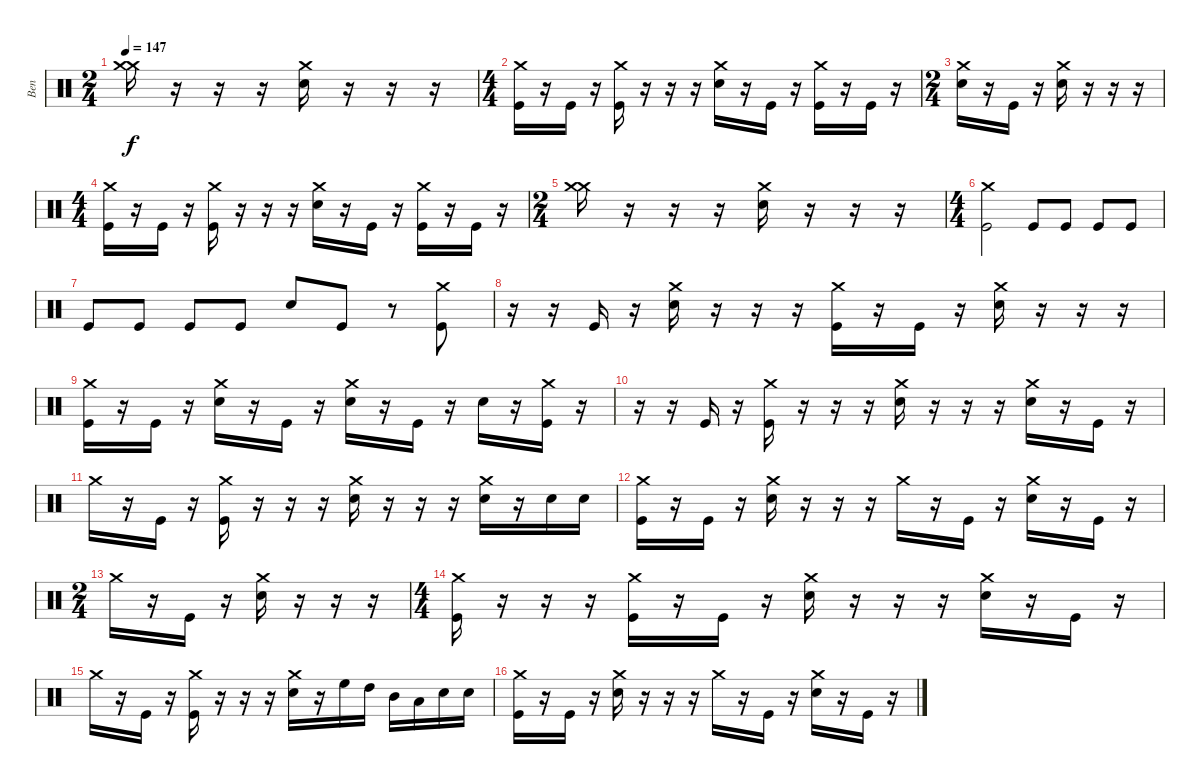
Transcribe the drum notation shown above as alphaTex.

\track ("Ben" "Ben") {instrument percussion}
\staff {score}
\articulation defaults
\ts (2 4)
\tempo 147
\clef neutral
\ks c
("Crash medium (hit)" "Crash medium (hit)").16{dy f} r.16 r.16 r.16 ("Crash medium (hit)" "Electric Snare (hit)").16 r.16 r.16 r.16 |
\ts (4 4)
("Crash medium (hit)" "Kick (hit)").16 r.16 "Kick (hit)".16 r.16 ("Crash medium (hit)" "Kick (hit)").16 r.16 r.16 r.16 ("Crash medium (hit)" "Electric Snare (hit)").16 r.16 "Kick (hit)".16 r.16 ("Crash medium (hit)" "Kick (hit)").16 r.16 "Kick (hit)".16 r.16 |
\ts (2 4)
("Crash medium (hit)" "Electric Snare (hit)").16 r.16 "Kick (hit)".16 r.16 ("Crash medium (hit)" "Electric Snare (hit)").16 r.16 r.16 r.16 |
\ts (4 4)
("Crash medium (hit)" "Kick (hit)").16 r.16 "Kick (hit)".16 r.16 ("Crash medium (hit)" "Kick (hit)").16 r.16 r.16 r.16 ("Crash medium (hit)" "Electric Snare (hit)").16 r.16 "Kick (hit)".16 r.16 ("Crash medium (hit)" "Kick (hit)").16 r.16 "Kick (hit)".16 r.16 |
\ts (2 4)
("Crash medium (hit)" "Crash medium (hit)").16 r.16 r.16 r.16 ("Crash medium (hit)" "Electric Snare (hit)").16 r.16 r.16 r.16 |
\ts (4 4)
("Crash medium (hit)" "Kick (hit)").2 "Kick (hit)".8{volume 8} "Kick (hit)".8 "Kick (hit)".8 "Kick (hit)".8 |
"Kick (hit)".8{volume 13} "Kick (hit)".8 "Kick (hit)".8 "Kick (hit)".8 "Electric Snare (hit)".8 "Kick (hit)".8 r.8 ("Crash medium (hit)" "Kick (hit)").8 |
r.16 r.16 "Kick (hit)".16 r.16 ("Crash medium (hit)" "Electric Snare (hit)").16 r.16 r.16 r.16 ("Crash medium (hit)" "Kick (hit)").16 r.16 "Kick (hit)".16 r.16 ("Crash medium (hit)" "Electric Snare (hit)").16 r.16 r.16 r.16 |
("Crash medium (hit)" "Kick (hit)").16 r.16 "Kick (hit)".16 r.16 ("Crash medium (hit)" "Electric Snare (hit)").16 r.16 "Kick (hit)".16 r.16 ("Crash medium (hit)" "Electric Snare (hit)").16 r.16 "Kick (hit)".16 r.16 "Electric Snare (hit)".16 r.16 ("Crash medium (hit)" "Kick (hit)").16 r.16 |
r.16 r.16 "Kick (hit)".16 r.16 ("Crash medium (hit)" "Kick (hit)").16 r.16 r.16 r.16 ("Crash medium (hit)" "Electric Snare (hit)").16 r.16 r.16 r.16 ("Crash medium (hit)" "Electric Snare (hit)").16 r.16 "Kick (hit)".16 r.16 |
"Crash medium (hit)".16 r.16 "Kick (hit)".16 r.16 ("Crash medium (hit)" "Kick (hit)").16 r.16 r.16 r.16 ("Crash medium (hit)" "Electric Snare (hit)").16 r.16 r.16 r.16 ("Crash medium (hit)" "Electric Snare (hit)").16 r.16 "Electric Snare (hit)".16 "Electric Snare (hit)".16 |
("Crash medium (hit)" "Kick (hit)").16 r.16 "Kick (hit)".16 r.16 ("Crash medium (hit)" "Electric Snare (hit)").16 r.16 r.16 r.16 "Crash medium (hit)".16 r.16 "Kick (hit)".16 r.16 ("Crash medium (hit)" "Electric Snare (hit)").16 r.16 "Kick (hit)".16 r.16 |
\ts (2 4)
"Crash medium (hit)".16 r.16 "Kick (hit)".16 r.16 ("Crash medium (hit)" "Electric Snare (hit)").16 r.16 r.16 r.16 |
\ts (4 4)
("Crash medium (hit)" "Kick (hit)").16 r.16 r.16 r.16 ("Crash medium (hit)" "Kick (hit)").16 r.16 "Kick (hit)".16 r.16 ("Crash medium (hit)" "Electric Snare (hit)").16 r.16 r.16 r.16 ("Crash medium (hit)" "Electric Snare (hit)").16 r.16 "Kick (hit)".16 r.16 |
"Crash medium (hit)".16 r.16 "Kick (hit)".16 r.16 ("Crash medium (hit)" "Kick (hit)").16 r.16 r.16 r.16 ("Crash medium (hit)" "Electric Snare (hit)").16 r.16 "High Floor Tom (hit)".16 "High Tom (hit)".16 "Mid Tom (hit)".16 "Low Tom (hit)".16 "Electric Snare (hit)".16 "Electric Snare (hit)".16 |
("Crash medium (hit)" "Kick (hit)").16 r.16 "Kick (hit)".16 r.16 ("Crash medium (hit)" "Electric Snare (hit)").16 r.16 r.16 r.16 "Crash medium (hit)".16 r.16 "Kick (hit)".16 r.16 ("Crash medium (hit)" "Electric Snare (hit)").16 r.16 "Kick (hit)".16 r.16
